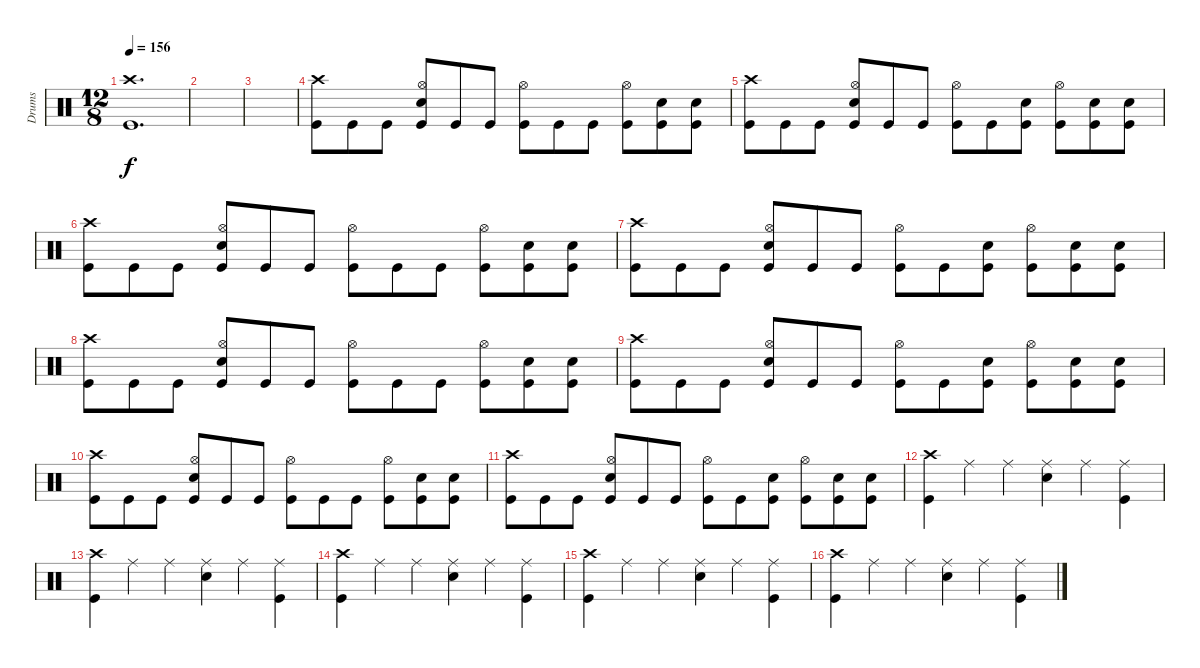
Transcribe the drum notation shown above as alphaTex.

\track ("Drums" "Drums") {instrument percussion}
\staff {score}
\articulation defaults
\ts (12 8)
\tempo 156
\clef neutral
\ks c
("Crash high (hit)" "Kick (hit)").1{d dy f} |
|
|
("Crash high (hit)" "Kick (hit)").8{volume 14} "Kick (hit)".8 "Kick (hit)".8 ("Hi-Hat (open)" "Electric Snare (hit)" "Kick (hit)").8 "Kick (hit)".8 "Kick (hit)".8 ("Hi-Hat (open)" "Kick (hit)").8 "Kick (hit)".8 "Kick (hit)".8 ("Hi-Hat (open)" "Kick (hit)").8 ("Electric Snare (hit)" "Kick (hit)").8 ("Electric Snare (hit)" "Kick (hit)").8 |
("Crash high (hit)" "Kick (hit)").8 "Kick (hit)".8 "Kick (hit)".8 ("Hi-Hat (open)" "Electric Snare (hit)" "Kick (hit)").8 "Kick (hit)".8 "Kick (hit)".8 ("Hi-Hat (open)" "Kick (hit)").8 "Kick (hit)".8 ("Electric Snare (hit)" "Kick (hit)").8 ("Hi-Hat (open)" "Kick (hit)").8 ("Electric Snare (hit)" "Kick (hit)").8 ("Electric Snare (hit)" "Kick (hit)").8 |
("Crash high (hit)" "Kick (hit)").8 "Kick (hit)".8 "Kick (hit)".8 ("Hi-Hat (open)" "Electric Snare (hit)" "Kick (hit)").8 "Kick (hit)".8 "Kick (hit)".8 ("Hi-Hat (open)" "Kick (hit)").8 "Kick (hit)".8 "Kick (hit)".8 ("Hi-Hat (open)" "Kick (hit)").8 ("Electric Snare (hit)" "Kick (hit)").8 ("Electric Snare (hit)" "Kick (hit)").8 |
("Crash high (hit)" "Kick (hit)").8 "Kick (hit)".8 "Kick (hit)".8 ("Hi-Hat (open)" "Electric Snare (hit)" "Kick (hit)").8 "Kick (hit)".8 "Kick (hit)".8 ("Hi-Hat (open)" "Kick (hit)").8 "Kick (hit)".8 ("Electric Snare (hit)" "Kick (hit)").8 ("Hi-Hat (open)" "Kick (hit)").8 ("Electric Snare (hit)" "Kick (hit)").8 ("Electric Snare (hit)" "Kick (hit)").8 |
("Crash high (hit)" "Kick (hit)").8 "Kick (hit)".8 "Kick (hit)".8 ("Hi-Hat (open)" "Electric Snare (hit)" "Kick (hit)").8 "Kick (hit)".8 "Kick (hit)".8 ("Hi-Hat (open)" "Kick (hit)").8 "Kick (hit)".8 "Kick (hit)".8 ("Hi-Hat (open)" "Kick (hit)").8 ("Electric Snare (hit)" "Kick (hit)").8 ("Electric Snare (hit)" "Kick (hit)").8 |
("Crash high (hit)" "Kick (hit)").8 "Kick (hit)".8 "Kick (hit)".8 ("Hi-Hat (open)" "Electric Snare (hit)" "Kick (hit)").8 "Kick (hit)".8 "Kick (hit)".8 ("Hi-Hat (open)" "Kick (hit)").8 "Kick (hit)".8 ("Electric Snare (hit)" "Kick (hit)").8 ("Hi-Hat (open)" "Kick (hit)").8 ("Electric Snare (hit)" "Kick (hit)").8 ("Electric Snare (hit)" "Kick (hit)").8 |
("Crash high (hit)" "Kick (hit)").8 "Kick (hit)".8 "Kick (hit)".8 ("Hi-Hat (open)" "Electric Snare (hit)" "Kick (hit)").8 "Kick (hit)".8 "Kick (hit)".8 ("Hi-Hat (open)" "Kick (hit)").8 "Kick (hit)".8 "Kick (hit)".8 ("Hi-Hat (open)" "Kick (hit)").8 ("Electric Snare (hit)" "Kick (hit)").8 ("Electric Snare (hit)" "Kick (hit)").8 |
("Crash high (hit)" "Kick (hit)").8 "Kick (hit)".8 "Kick (hit)".8 ("Hi-Hat (open)" "Electric Snare (hit)" "Kick (hit)").8 "Kick (hit)".8 "Kick (hit)".8 ("Hi-Hat (open)" "Kick (hit)").8 "Kick (hit)".8 ("Electric Snare (hit)" "Kick (hit)").8 ("Hi-Hat (open)" "Kick (hit)").8 ("Electric Snare (hit)" "Kick (hit)").8 ("Electric Snare (hit)" "Kick (hit)").8 |
("Crash high (hit)" "Kick (hit)").4 "Ride (middle)".4 "Ride (middle)".4 ("Ride (middle)" "Electric Snare (hit)").4 "Ride (middle)".4 ("Ride (middle)" "Kick (hit)").4 |
("Crash high (hit)" "Kick (hit)").4 "Ride (middle)".4 "Ride (middle)".4 ("Ride (middle)" "Electric Snare (hit)").4 "Ride (middle)".4 ("Ride (middle)" "Kick (hit)").4 |
("Crash high (hit)" "Kick (hit)").4 "Ride (middle)".4 "Ride (middle)".4 ("Ride (middle)" "Electric Snare (hit)").4 "Ride (middle)".4 ("Ride (middle)" "Kick (hit)").4 |
("Crash high (hit)" "Kick (hit)").4 "Ride (middle)".4 "Ride (middle)".4 ("Ride (middle)" "Electric Snare (hit)").4 "Ride (middle)".4 ("Ride (middle)" "Kick (hit)").4 |
("Crash high (hit)" "Kick (hit)").4 "Ride (middle)".4 "Ride (middle)".4 ("Ride (middle)" "Electric Snare (hit)").4 "Ride (middle)".4 ("Ride (middle)" "Kick (hit)").4
